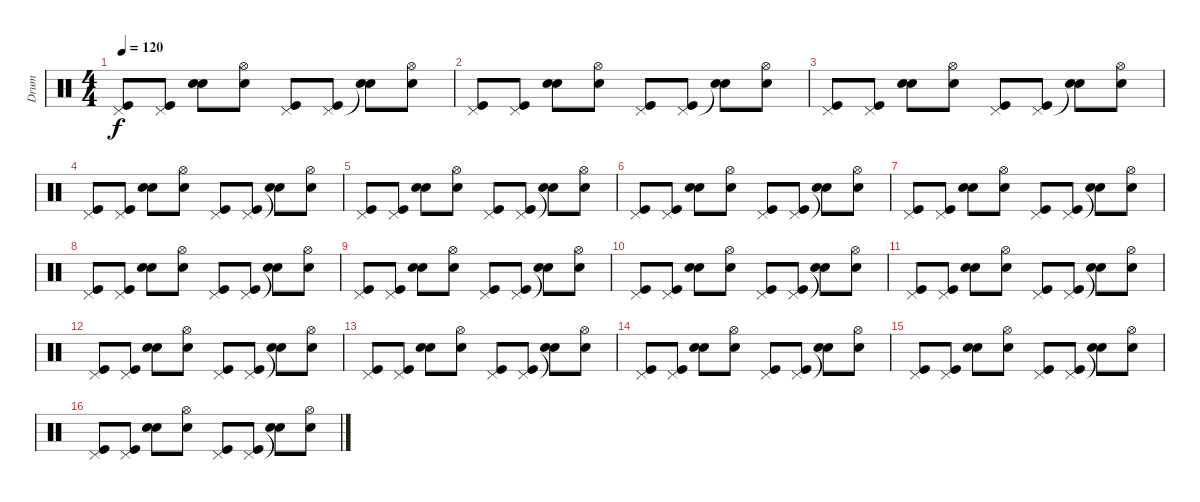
\track ("Drum" "Drum") {instrument percussion}
\staff {score}
\articulation defaults
\ts (4 4)
\tempo 120
\clef neutral
\ks c
("Pedal Hi-Hat (hit)" "Kick (hit)").8{dy f} ("Pedal Hi-Hat (hit)" "Kick (hit)").8 ("Snare (hit) 2" "Snare (hit) 2").8 ("Hi-Hat (open)" "Snare (hit) 2").8 ("Pedal Hi-Hat (hit)" "Kick (hit)").8 ("Pedal Hi-Hat (hit)" "Kick (hit)").8 ("Snare (hit) 2"{t} "Snare (hit) 2").8 ("Hi-Hat (open)" "Snare (hit) 2").8 |
("Pedal Hi-Hat (hit)" "Kick (hit)").8 ("Pedal Hi-Hat (hit)" "Kick (hit)").8 ("Snare (hit) 2" "Snare (hit) 2").8 ("Hi-Hat (open)" "Snare (hit) 2").8 ("Pedal Hi-Hat (hit)" "Kick (hit)").8 ("Pedal Hi-Hat (hit)" "Kick (hit)").8 ("Snare (hit) 2"{t} "Snare (hit) 2").8 ("Hi-Hat (open)" "Snare (hit) 2").8 |
("Pedal Hi-Hat (hit)" "Kick (hit)").8 ("Pedal Hi-Hat (hit)" "Kick (hit)").8 ("Snare (hit) 2" "Snare (hit) 2").8 ("Hi-Hat (open)" "Snare (hit) 2").8 ("Pedal Hi-Hat (hit)" "Kick (hit)").8 ("Pedal Hi-Hat (hit)" "Kick (hit)").8 ("Snare (hit) 2"{t} "Snare (hit) 2").8 ("Hi-Hat (open)" "Snare (hit) 2").8 |
("Pedal Hi-Hat (hit)" "Kick (hit)").8 ("Pedal Hi-Hat (hit)" "Kick (hit)").8 ("Snare (hit) 2" "Snare (hit) 2").8 ("Hi-Hat (open)" "Snare (hit) 2").8 ("Pedal Hi-Hat (hit)" "Kick (hit)").8 ("Pedal Hi-Hat (hit)" "Kick (hit)").8 ("Snare (hit) 2"{t} "Snare (hit) 2").8 ("Hi-Hat (open)" "Snare (hit) 2").8 |
("Pedal Hi-Hat (hit)" "Kick (hit)").8 ("Pedal Hi-Hat (hit)" "Kick (hit)").8 ("Snare (hit) 2" "Snare (hit) 2").8 ("Hi-Hat (open)" "Snare (hit) 2").8 ("Pedal Hi-Hat (hit)" "Kick (hit)").8 ("Pedal Hi-Hat (hit)" "Kick (hit)").8 ("Snare (hit) 2"{t} "Snare (hit) 2").8 ("Hi-Hat (open)" "Snare (hit) 2").8 |
("Pedal Hi-Hat (hit)" "Kick (hit)").8 ("Pedal Hi-Hat (hit)" "Kick (hit)").8 ("Snare (hit) 2" "Snare (hit) 2").8 ("Hi-Hat (open)" "Snare (hit) 2").8 ("Pedal Hi-Hat (hit)" "Kick (hit)").8 ("Pedal Hi-Hat (hit)" "Kick (hit)").8 ("Snare (hit) 2"{t} "Snare (hit) 2").8 ("Hi-Hat (open)" "Snare (hit) 2").8 |
("Pedal Hi-Hat (hit)" "Kick (hit)").8 ("Pedal Hi-Hat (hit)" "Kick (hit)").8 ("Snare (hit) 2" "Snare (hit) 2").8 ("Hi-Hat (open)" "Snare (hit) 2").8 ("Pedal Hi-Hat (hit)" "Kick (hit)").8 ("Pedal Hi-Hat (hit)" "Kick (hit)").8 ("Snare (hit) 2"{t} "Snare (hit) 2").8 ("Hi-Hat (open)" "Snare (hit) 2").8 |
("Pedal Hi-Hat (hit)" "Kick (hit)").8 ("Pedal Hi-Hat (hit)" "Kick (hit)").8 ("Snare (hit) 2" "Snare (hit) 2").8 ("Hi-Hat (open)" "Snare (hit) 2").8 ("Pedal Hi-Hat (hit)" "Kick (hit)").8 ("Pedal Hi-Hat (hit)" "Kick (hit)").8 ("Snare (hit) 2"{t} "Snare (hit) 2").8 ("Hi-Hat (open)" "Snare (hit) 2").8 |
("Pedal Hi-Hat (hit)" "Kick (hit)").8 ("Pedal Hi-Hat (hit)" "Kick (hit)").8 ("Snare (hit) 2" "Snare (hit) 2").8 ("Hi-Hat (open)" "Snare (hit) 2").8 ("Pedal Hi-Hat (hit)" "Kick (hit)").8 ("Pedal Hi-Hat (hit)" "Kick (hit)").8 ("Snare (hit) 2"{t} "Snare (hit) 2").8 ("Hi-Hat (open)" "Snare (hit) 2").8 |
("Pedal Hi-Hat (hit)" "Kick (hit)").8 ("Pedal Hi-Hat (hit)" "Kick (hit)").8 ("Snare (hit) 2" "Snare (hit) 2").8 ("Hi-Hat (open)" "Snare (hit) 2").8 ("Pedal Hi-Hat (hit)" "Kick (hit)").8 ("Pedal Hi-Hat (hit)" "Kick (hit)").8 ("Snare (hit) 2"{t} "Snare (hit) 2").8 ("Hi-Hat (open)" "Snare (hit) 2").8 |
("Pedal Hi-Hat (hit)" "Kick (hit)").8 ("Pedal Hi-Hat (hit)" "Kick (hit)").8 ("Snare (hit) 2" "Snare (hit) 2").8 ("Hi-Hat (open)" "Snare (hit) 2").8 ("Pedal Hi-Hat (hit)" "Kick (hit)").8 ("Pedal Hi-Hat (hit)" "Kick (hit)").8 ("Snare (hit) 2"{t} "Snare (hit) 2").8 ("Hi-Hat (open)" "Snare (hit) 2").8 |
("Pedal Hi-Hat (hit)" "Kick (hit)").8 ("Pedal Hi-Hat (hit)" "Kick (hit)").8 ("Snare (hit) 2" "Snare (hit) 2").8 ("Hi-Hat (open)" "Snare (hit) 2").8 ("Pedal Hi-Hat (hit)" "Kick (hit)").8 ("Pedal Hi-Hat (hit)" "Kick (hit)").8 ("Snare (hit) 2"{t} "Snare (hit) 2").8 ("Hi-Hat (open)" "Snare (hit) 2").8 |
("Pedal Hi-Hat (hit)" "Kick (hit)").8 ("Pedal Hi-Hat (hit)" "Kick (hit)").8 ("Snare (hit) 2" "Snare (hit) 2").8 ("Hi-Hat (open)" "Snare (hit) 2").8 ("Pedal Hi-Hat (hit)" "Kick (hit)").8 ("Pedal Hi-Hat (hit)" "Kick (hit)").8 ("Snare (hit) 2"{t} "Snare (hit) 2").8 ("Hi-Hat (open)" "Snare (hit) 2").8 |
("Pedal Hi-Hat (hit)" "Kick (hit)").8 ("Pedal Hi-Hat (hit)" "Kick (hit)").8 ("Snare (hit) 2" "Snare (hit) 2").8 ("Hi-Hat (open)" "Snare (hit) 2").8 ("Pedal Hi-Hat (hit)" "Kick (hit)").8 ("Pedal Hi-Hat (hit)" "Kick (hit)").8 ("Snare (hit) 2"{t} "Snare (hit) 2").8 ("Hi-Hat (open)" "Snare (hit) 2").8 |
("Pedal Hi-Hat (hit)" "Kick (hit)").8 ("Pedal Hi-Hat (hit)" "Kick (hit)").8 ("Snare (hit) 2" "Snare (hit) 2").8 ("Hi-Hat (open)" "Snare (hit) 2").8 ("Pedal Hi-Hat (hit)" "Kick (hit)").8 ("Pedal Hi-Hat (hit)" "Kick (hit)").8 ("Snare (hit) 2"{t} "Snare (hit) 2").8 ("Hi-Hat (open)" "Snare (hit) 2").8 |
("Pedal Hi-Hat (hit)" "Kick (hit)").8 ("Pedal Hi-Hat (hit)" "Kick (hit)").8 ("Snare (hit) 2" "Snare (hit) 2").8 ("Hi-Hat (open)" "Snare (hit) 2").8 ("Pedal Hi-Hat (hit)" "Kick (hit)").8 ("Pedal Hi-Hat (hit)" "Kick (hit)").8 ("Snare (hit) 2"{t} "Snare (hit) 2").8 ("Hi-Hat (open)" "Snare (hit) 2").8
